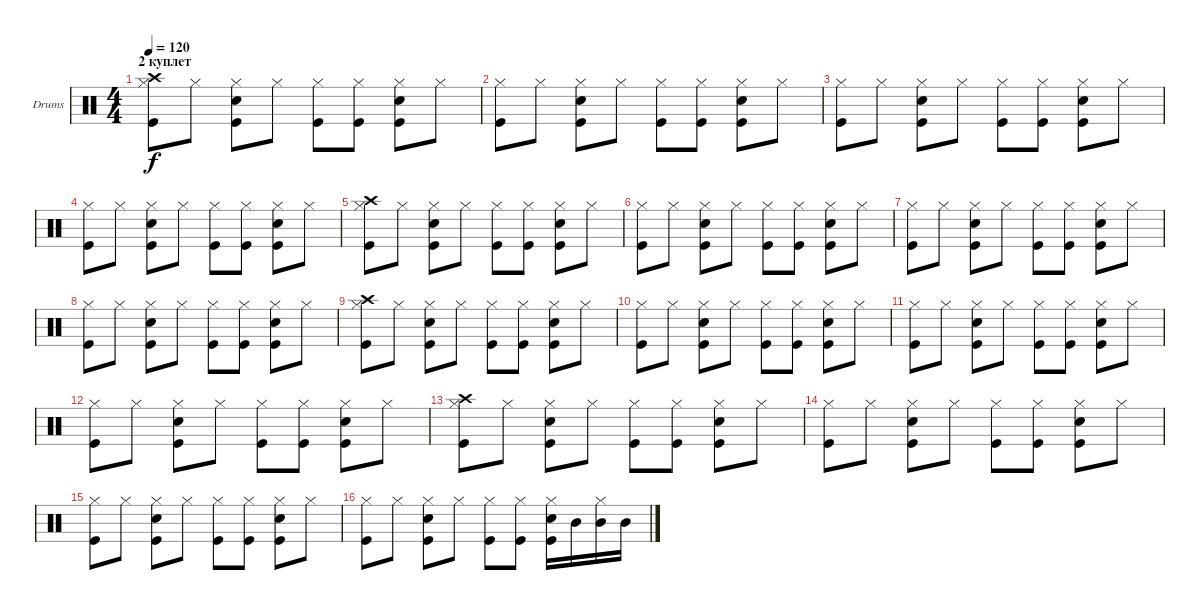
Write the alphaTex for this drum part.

\defaultSystemsLayout 4
\bracketExtendMode groupsimilarinstruments
\firstSystemTrackNameOrientation horizontal
\otherSystemsTrackNameOrientation horizontal
\track ("Drumkit" "Drums") {instrument percussion}
\staff {score}
\articulation defaults
\ts (4 4)
\section ("" "2 куплет")
\tempo 120
\clef neutral
\ks c
("Hi-Hat (closed)" "Kick (hit)" "Crash high (hit)").8{dy f} "Hi-Hat (closed)".8 ("Hi-Hat (closed)" "Snare (hit) 2" "Kick (hit)").8 "Hi-Hat (closed)".8 ("Hi-Hat (closed)" "Kick (hit)").8 ("Hi-Hat (closed)" "Kick (hit)").8 ("Hi-Hat (closed)" "Snare (hit) 2" "Kick (hit)").8 "Hi-Hat (closed)".8 |
("Hi-Hat (closed)" "Kick (hit)").8 "Hi-Hat (closed)".8 ("Hi-Hat (closed)" "Snare (hit) 2" "Kick (hit)").8 "Hi-Hat (closed)".8 ("Hi-Hat (closed)" "Kick (hit)").8 ("Hi-Hat (closed)" "Kick (hit)").8 ("Hi-Hat (closed)" "Snare (hit) 2" "Kick (hit)").8 "Hi-Hat (closed)".8 |
("Hi-Hat (closed)" "Kick (hit)").8 "Hi-Hat (closed)".8 ("Hi-Hat (closed)" "Snare (hit) 2" "Kick (hit)").8 "Hi-Hat (closed)".8 ("Hi-Hat (closed)" "Kick (hit)").8 ("Hi-Hat (closed)" "Kick (hit)").8 ("Hi-Hat (closed)" "Snare (hit) 2" "Kick (hit)").8 "Hi-Hat (closed)".8 |
("Hi-Hat (closed)" "Kick (hit)").8 "Hi-Hat (closed)".8 ("Hi-Hat (closed)" "Snare (hit) 2" "Kick (hit)").8 "Hi-Hat (closed)".8 ("Hi-Hat (closed)" "Kick (hit)").8 ("Hi-Hat (closed)" "Kick (hit)").8 ("Hi-Hat (closed)" "Snare (hit) 2" "Kick (hit)").8 "Hi-Hat (closed)".8 |
("Hi-Hat (closed)" "Kick (hit)" "Crash high (hit)").8 "Hi-Hat (closed)".8 ("Hi-Hat (closed)" "Snare (hit) 2" "Kick (hit)").8 "Hi-Hat (closed)".8 ("Hi-Hat (closed)" "Kick (hit)").8 ("Hi-Hat (closed)" "Kick (hit)").8 ("Hi-Hat (closed)" "Snare (hit) 2" "Kick (hit)").8 "Hi-Hat (closed)".8 |
("Hi-Hat (closed)" "Kick (hit)").8 "Hi-Hat (closed)".8 ("Hi-Hat (closed)" "Snare (hit) 2" "Kick (hit)").8 "Hi-Hat (closed)".8 ("Hi-Hat (closed)" "Kick (hit)").8 ("Hi-Hat (closed)" "Kick (hit)").8 ("Hi-Hat (closed)" "Snare (hit) 2" "Kick (hit)").8 "Hi-Hat (closed)".8 |
("Hi-Hat (closed)" "Kick (hit)").8 "Hi-Hat (closed)".8 ("Hi-Hat (closed)" "Snare (hit) 2" "Kick (hit)").8 "Hi-Hat (closed)".8 ("Hi-Hat (closed)" "Kick (hit)").8 ("Hi-Hat (closed)" "Kick (hit)").8 ("Hi-Hat (closed)" "Snare (hit) 2" "Kick (hit)").8 "Hi-Hat (closed)".8 |
("Hi-Hat (closed)" "Kick (hit)").8 "Hi-Hat (closed)".8 ("Hi-Hat (closed)" "Snare (hit) 2" "Kick (hit)").8 "Hi-Hat (closed)".8 ("Hi-Hat (closed)" "Kick (hit)").8 ("Hi-Hat (closed)" "Kick (hit)").8 ("Hi-Hat (closed)" "Snare (hit) 2" "Kick (hit)").8 "Hi-Hat (closed)".8 |
("Hi-Hat (closed)" "Kick (hit)" "Crash high (hit)").8 "Hi-Hat (closed)".8 ("Hi-Hat (closed)" "Snare (hit) 2" "Kick (hit)").8 "Hi-Hat (closed)".8 ("Hi-Hat (closed)" "Kick (hit)").8 ("Hi-Hat (closed)" "Kick (hit)").8 ("Hi-Hat (closed)" "Snare (hit) 2" "Kick (hit)").8 "Hi-Hat (closed)".8 |
("Hi-Hat (closed)" "Kick (hit)").8 "Hi-Hat (closed)".8 ("Hi-Hat (closed)" "Snare (hit) 2" "Kick (hit)").8 "Hi-Hat (closed)".8 ("Hi-Hat (closed)" "Kick (hit)").8 ("Hi-Hat (closed)" "Kick (hit)").8 ("Hi-Hat (closed)" "Snare (hit) 2" "Kick (hit)").8 "Hi-Hat (closed)".8 |
("Hi-Hat (closed)" "Kick (hit)").8 "Hi-Hat (closed)".8 ("Hi-Hat (closed)" "Snare (hit) 2" "Kick (hit)").8 "Hi-Hat (closed)".8 ("Hi-Hat (closed)" "Kick (hit)").8 ("Hi-Hat (closed)" "Kick (hit)").8 ("Hi-Hat (closed)" "Snare (hit) 2" "Kick (hit)").8 "Hi-Hat (closed)".8 |
("Hi-Hat (closed)" "Kick (hit)").8 "Hi-Hat (closed)".8 ("Hi-Hat (closed)" "Snare (hit) 2" "Kick (hit)").8 "Hi-Hat (closed)".8 ("Hi-Hat (closed)" "Kick (hit)").8 ("Hi-Hat (closed)" "Kick (hit)").8 ("Hi-Hat (closed)" "Snare (hit) 2" "Kick (hit)").8 "Hi-Hat (closed)".8 |
("Hi-Hat (closed)" "Kick (hit)" "Crash high (hit)").8 "Hi-Hat (closed)".8 ("Hi-Hat (closed)" "Snare (hit) 2" "Kick (hit)").8 "Hi-Hat (closed)".8 ("Hi-Hat (closed)" "Kick (hit)").8 ("Hi-Hat (closed)" "Kick (hit)").8 ("Hi-Hat (closed)" "Snare (hit) 2" "Kick (hit)").8 "Hi-Hat (closed)".8 |
("Hi-Hat (closed)" "Kick (hit)").8 "Hi-Hat (closed)".8 ("Hi-Hat (closed)" "Snare (hit) 2" "Kick (hit)").8 "Hi-Hat (closed)".8 ("Hi-Hat (closed)" "Kick (hit)").8 ("Hi-Hat (closed)" "Kick (hit)").8 ("Hi-Hat (closed)" "Snare (hit) 2" "Kick (hit)").8 "Hi-Hat (closed)".8 |
("Hi-Hat (closed)" "Kick (hit)").8 "Hi-Hat (closed)".8 ("Hi-Hat (closed)" "Snare (hit) 2" "Kick (hit)").8 "Hi-Hat (closed)".8 ("Hi-Hat (closed)" "Kick (hit)").8 ("Hi-Hat (closed)" "Kick (hit)").8 ("Hi-Hat (closed)" "Snare (hit) 2" "Kick (hit)").8 "Hi-Hat (closed)".8 |
("Hi-Hat (closed)" "Kick (hit)").8 "Hi-Hat (closed)".8 ("Hi-Hat (closed)" "Snare (hit) 2" "Kick (hit)").8 "Hi-Hat (closed)".8 ("Hi-Hat (closed)" "Kick (hit)").8 ("Hi-Hat (closed)" "Kick (hit)").8 ("Hi-Hat (closed)" "Snare (hit) 2" "Kick (hit)").16 "Mid Tom (hit)".16 ("Mid Tom (hit)" "Hi-Hat (closed)").16 "Mid Tom (hit)".16
